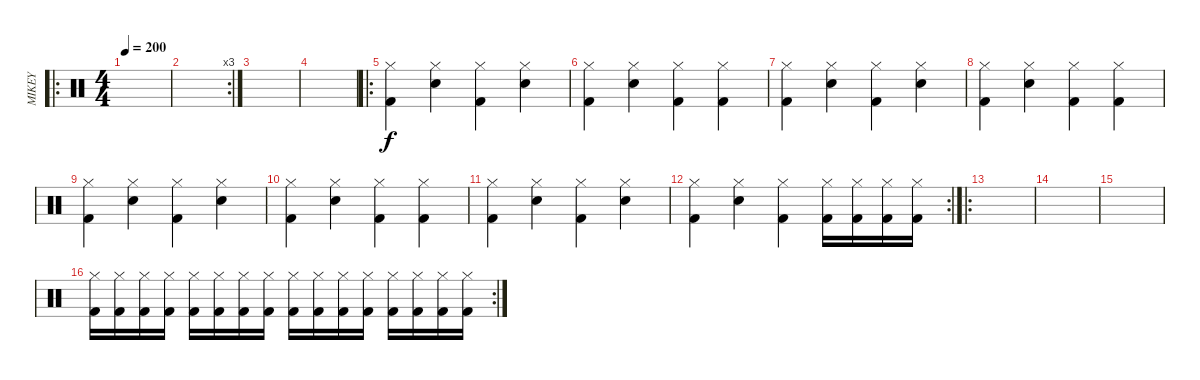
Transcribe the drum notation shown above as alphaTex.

\track ("MIKEY" "MIKEY") {instrument percussion}
\staff {score}
\articulation defaults
\ro
\ts (4 4)
\tempo 200
\clef neutral
\ks c
|
\rc 3
|
|
|
\ro
("Hi-Hat (closed)" "Kick (hit) 2").4 ("Hi-Hat (closed)" "Snare (hit) 2").4 ("Hi-Hat (closed)" "Kick (hit) 2").4 ("Hi-Hat (closed)" "Snare (hit) 2").4 |
("Hi-Hat (closed)" "Kick (hit) 2").4 ("Hi-Hat (closed)" "Snare (hit) 2").4 ("Hi-Hat (closed)" "Kick (hit) 2").4 ("Hi-Hat (closed)" "Kick (hit) 2").4 |
("Hi-Hat (closed)" "Kick (hit) 2").4 ("Hi-Hat (closed)" "Snare (hit) 2").4 ("Hi-Hat (closed)" "Kick (hit) 2").4 ("Hi-Hat (closed)" "Snare (hit) 2").4 |
("Hi-Hat (closed)" "Kick (hit) 2").4 ("Hi-Hat (closed)" "Snare (hit) 2").4 ("Hi-Hat (closed)" "Kick (hit) 2").4 ("Hi-Hat (closed)" "Kick (hit) 2").4 |
("Hi-Hat (closed)" "Kick (hit) 2").4 ("Hi-Hat (closed)" "Snare (hit) 2").4 ("Hi-Hat (closed)" "Kick (hit) 2").4 ("Hi-Hat (closed)" "Snare (hit) 2").4 |
("Hi-Hat (closed)" "Kick (hit) 2").4 ("Hi-Hat (closed)" "Snare (hit) 2").4 ("Hi-Hat (closed)" "Kick (hit) 2").4 ("Hi-Hat (closed)" "Kick (hit) 2").4 |
("Hi-Hat (closed)" "Kick (hit) 2").4 ("Hi-Hat (closed)" "Snare (hit) 2").4 ("Hi-Hat (closed)" "Kick (hit) 2").4 ("Hi-Hat (closed)" "Snare (hit) 2").4 |
\rc 2
("Hi-Hat (closed)" "Kick (hit) 2").4 ("Hi-Hat (closed)" "Snare (hit) 2").4 ("Hi-Hat (closed)" "Kick (hit) 2").4 ("Hi-Hat (closed)" "Kick (hit) 2").16 ("Hi-Hat (closed)" "Kick (hit) 2").16 ("Hi-Hat (closed)" "Kick (hit) 2").16 ("Hi-Hat (closed)" "Kick (hit) 2").16 |
\ro
|
|
|
\rc 2
("Hi-Hat (closed)" "Kick (hit) 2").16 ("Hi-Hat (closed)" "Kick (hit) 2").16 ("Hi-Hat (closed)" "Kick (hit) 2").16 ("Hi-Hat (closed)" "Kick (hit) 2").16 ("Hi-Hat (closed)" "Kick (hit) 2").16 ("Hi-Hat (closed)" "Kick (hit) 2").16 ("Hi-Hat (closed)" "Kick (hit) 2").16 ("Hi-Hat (closed)" "Kick (hit) 2").16 ("Hi-Hat (closed)" "Kick (hit) 2").16 ("Hi-Hat (closed)" "Kick (hit) 2").16 ("Hi-Hat (closed)" "Kick (hit) 2").16 ("Hi-Hat (closed)" "Kick (hit) 2").16 ("Hi-Hat (closed)" "Kick (hit) 2").16 ("Hi-Hat (closed)" "Kick (hit) 2").16 ("Hi-Hat (closed)" "Kick (hit) 2").16 ("Hi-Hat (closed)" "Kick (hit) 2").16
